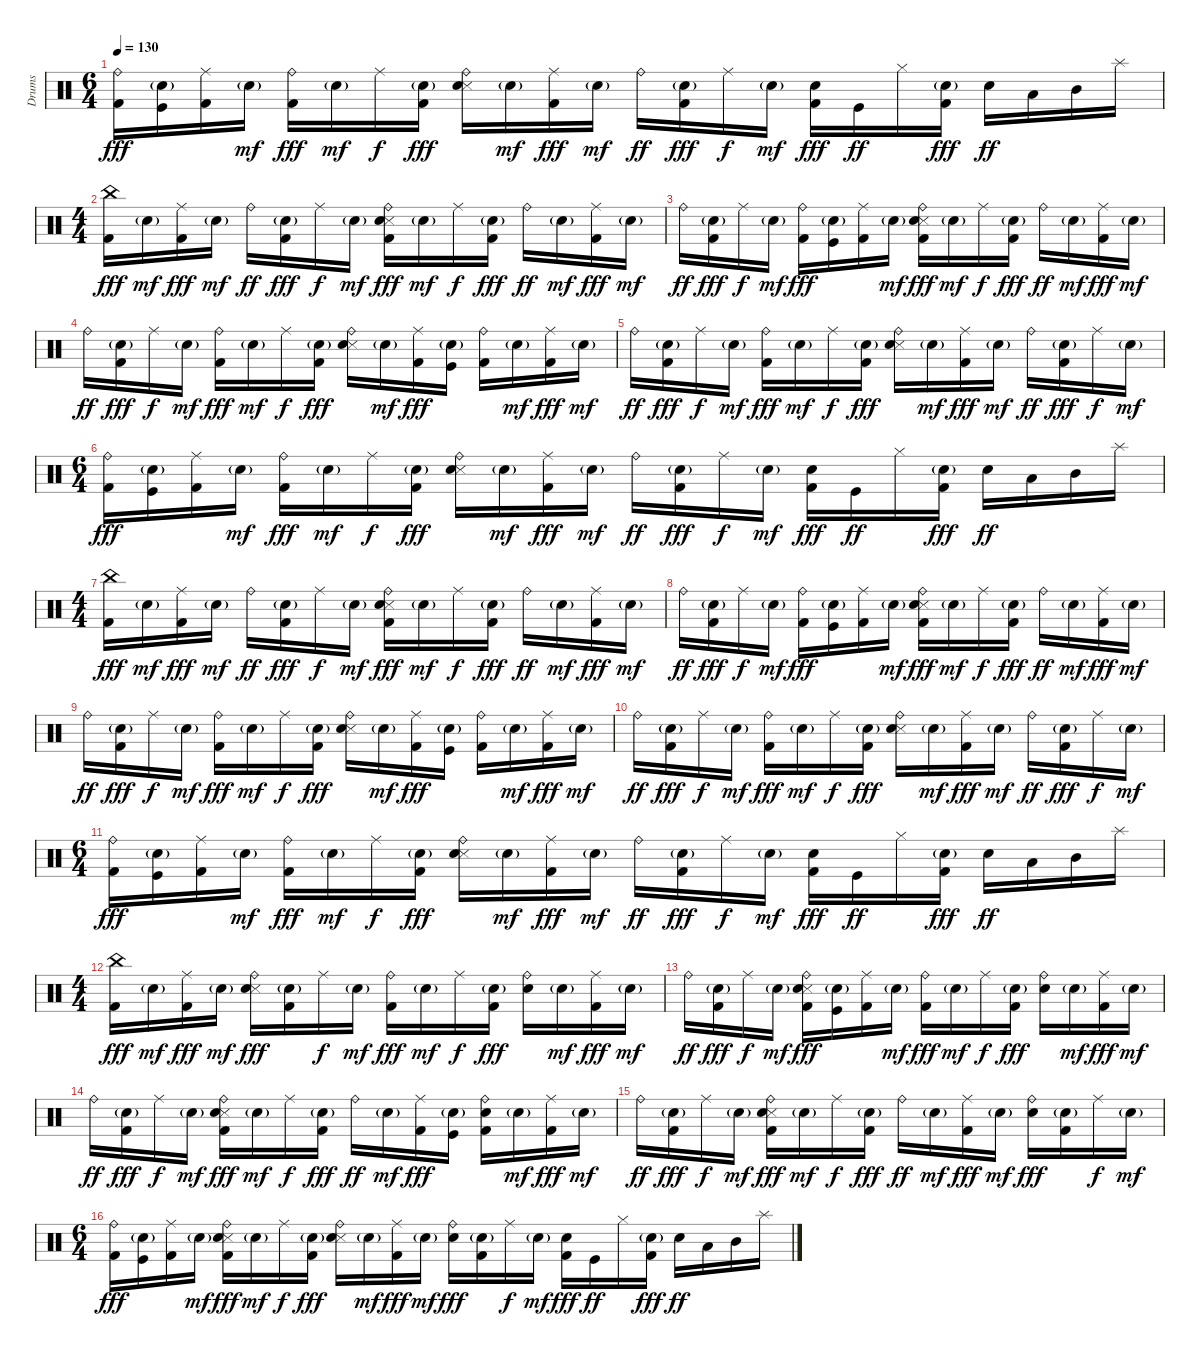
\track ("Drums" "Drums") {instrument percussion}
\staff {score}
\articulation defaults
\ts (6 4)
\tempo 130
\clef neutral
\ks c
("Ride (bell)" "Kick (hit) 2").16{dy fff} ("Snare (hit) 2"{g} "Kick (hit)").16 ("Ride (middle)" "Kick (hit) 2").16 "Snare (hit) 2"{g}.16{dy mf} ("Ride (bell)" "Kick (hit) 2").16{dy fff} "Snare (hit) 2"{g}.16{dy mf} "Ride (middle)".16{dy f} ("Snare (hit) 2"{g} "Kick (hit) 2").16{dy fff} ("Ride (bell)" "Snare (side stick) 3" "Snare (hit) 2").16 "Snare (hit) 2"{g}.16{dy mf} ("Ride (middle)" "Kick (hit) 2").16{dy fff} "Snare (hit) 2"{g}.16{dy mf} "Ride (bell)".16{dy ff} ("Snare (hit) 2"{g} "Kick (hit) 2").16{dy fff} "Ride (middle)".16{dy f} "Snare (hit) 2"{g}.16{dy mf} ("Snare (hit) 2" "Kick (hit) 2").16{dy fff} "Kick (hit)".16{dy ff} "Hi-Hat (closed)".16 ("Snare (hit) 2"{g} "Kick (hit) 2").16{dy fff} "Snare (hit) 2".16{dy ff} "Low Tom (hit)".16 "Mid Tom (hit)".16 "Splash (hit)".16 |
\ts (4 4)
("China (hit)" "Kick (hit) 2").16{dy fff} "Snare (hit) 2"{g}.16{dy mf} ("Ride (middle)" "Kick (hit) 2").16{dy fff} "Snare (hit) 2"{g}.16{dy mf} "Ride (bell)".16{dy ff} ("Snare (hit) 2"{g} "Kick (hit) 2").16{dy fff} "Ride (middle)".16{dy f} "Snare (hit) 2"{g}.16{dy mf} ("Ride (bell)" "Snare (side stick) 3" "Snare (hit) 2" "Kick (hit) 2").16{dy fff} "Snare (hit) 2"{g}.16{dy mf} "Ride (middle)".16{dy f} ("Snare (hit) 2"{g} "Kick (hit) 2").16{dy fff} "Ride (bell)".16{dy ff} "Snare (hit) 2"{g}.16{dy mf} ("Ride (middle)" "Kick (hit) 2").16{dy fff} "Snare (hit) 2"{g}.16{dy mf} |
"Ride (bell)".16{dy ff} ("Snare (hit) 2"{g} "Kick (hit) 2").16{dy fff} "Ride (middle)".16{dy f} "Snare (hit) 2"{g}.16{dy mf} ("Ride (bell)" "Kick (hit) 2").16{dy fff} ("Snare (hit) 2"{g} "Kick (hit)").16 ("Ride (middle)" "Kick (hit) 2").16 "Snare (hit) 2"{g}.16{dy mf} ("Ride (bell)" "Snare (side stick) 3" "Snare (hit) 2" "Kick (hit) 2").16{dy fff} "Snare (hit) 2"{g}.16{dy mf} "Ride (middle)".16{dy f} ("Snare (hit) 2"{g} "Kick (hit) 2").16{dy fff} "Ride (bell)".16{dy ff} "Snare (hit) 2"{g}.16{dy mf} ("Ride (middle)" "Kick (hit) 2").16{dy fff} "Snare (hit) 2"{g}.16{dy mf} |
"Ride (bell)".16{dy ff} ("Snare (hit) 2"{g} "Kick (hit) 2").16{dy fff} "Ride (middle)".16{dy f} "Snare (hit) 2"{g}.16{dy mf} ("Ride (bell)" "Kick (hit) 2").16{dy fff} "Snare (hit) 2"{g}.16{dy mf} "Ride (middle)".16{dy f} ("Snare (hit) 2"{g} "Kick (hit) 2").16{dy fff} ("Ride (bell)" "Snare (side stick) 3" "Snare (hit) 2").16 "Snare (hit) 2"{g}.16{dy mf} ("Ride (middle)" "Kick (hit) 2").16{dy fff} ("Snare (hit) 2"{g} "Kick (hit)").16 ("Ride (bell)" "Kick (hit) 2").16 "Snare (hit) 2"{g}.16{dy mf} ("Ride (middle)" "Kick (hit) 2").16{dy fff} "Snare (hit) 2"{g}.16{dy mf} |
"Ride (bell)".16{dy ff} ("Snare (hit) 2"{g} "Kick (hit) 2").16{dy fff} "Ride (middle)".16{dy f} "Snare (hit) 2"{g}.16{dy mf} ("Ride (bell)" "Kick (hit) 2").16{dy fff} "Snare (hit) 2"{g}.16{dy mf} "Ride (middle)".16{dy f} ("Snare (hit) 2"{g} "Kick (hit) 2").16{dy fff} ("Ride (bell)" "Snare (side stick) 3" "Snare (hit) 2").16 "Snare (hit) 2"{g}.16{dy mf} ("Ride (middle)" "Kick (hit) 2").16{dy fff} "Snare (hit) 2"{g}.16{dy mf} "Ride (bell)".16{dy ff} ("Snare (hit) 2"{g} "Kick (hit) 2").16{dy fff} "Ride (middle)".16{dy f} "Snare (hit) 2"{g}.16{dy mf} |
\ts (6 4)
("Ride (bell)" "Kick (hit) 2").16{dy fff} ("Snare (hit) 2"{g} "Kick (hit)").16 ("Ride (middle)" "Kick (hit) 2").16 "Snare (hit) 2"{g}.16{dy mf} ("Ride (bell)" "Kick (hit) 2").16{dy fff} "Snare (hit) 2"{g}.16{dy mf} "Ride (middle)".16{dy f} ("Snare (hit) 2"{g} "Kick (hit) 2").16{dy fff} ("Ride (bell)" "Snare (side stick) 3" "Snare (hit) 2").16 "Snare (hit) 2"{g}.16{dy mf} ("Ride (middle)" "Kick (hit) 2").16{dy fff} "Snare (hit) 2"{g}.16{dy mf} "Ride (bell)".16{dy ff} ("Snare (hit) 2"{g} "Kick (hit) 2").16{dy fff} "Ride (middle)".16{dy f} "Snare (hit) 2"{g}.16{dy mf} ("Snare (hit) 2" "Kick (hit) 2").16{dy fff} "Kick (hit)".16{dy ff} "Hi-Hat (closed)".16 ("Snare (hit) 2"{g} "Kick (hit) 2").16{dy fff} "Snare (hit) 2".16{dy ff} "Low Tom (hit)".16 "Mid Tom (hit)".16 "Splash (hit)".16 |
\ts (4 4)
("China (hit)" "Kick (hit) 2").16{dy fff} "Snare (hit) 2"{g}.16{dy mf} ("Ride (middle)" "Kick (hit) 2").16{dy fff} "Snare (hit) 2"{g}.16{dy mf} "Ride (bell)".16{dy ff} ("Snare (hit) 2"{g} "Kick (hit) 2").16{dy fff} "Ride (middle)".16{dy f} "Snare (hit) 2"{g}.16{dy mf} ("Ride (bell)" "Snare (side stick) 3" "Snare (hit) 2" "Kick (hit) 2").16{dy fff} "Snare (hit) 2"{g}.16{dy mf} "Ride (middle)".16{dy f} ("Snare (hit) 2"{g} "Kick (hit) 2").16{dy fff} "Ride (bell)".16{dy ff} "Snare (hit) 2"{g}.16{dy mf} ("Ride (middle)" "Kick (hit) 2").16{dy fff} "Snare (hit) 2"{g}.16{dy mf} |
"Ride (bell)".16{dy ff} ("Snare (hit) 2"{g} "Kick (hit) 2").16{dy fff} "Ride (middle)".16{dy f} "Snare (hit) 2"{g}.16{dy mf} ("Ride (bell)" "Kick (hit) 2").16{dy fff} ("Snare (hit) 2"{g} "Kick (hit)").16 ("Ride (middle)" "Kick (hit) 2").16 "Snare (hit) 2"{g}.16{dy mf} ("Ride (bell)" "Snare (side stick) 3" "Snare (hit) 2" "Kick (hit) 2").16{dy fff} "Snare (hit) 2"{g}.16{dy mf} "Ride (middle)".16{dy f} ("Snare (hit) 2"{g} "Kick (hit) 2").16{dy fff} "Ride (bell)".16{dy ff} "Snare (hit) 2"{g}.16{dy mf} ("Ride (middle)" "Kick (hit) 2").16{dy fff} "Snare (hit) 2"{g}.16{dy mf} |
"Ride (bell)".16{dy ff} ("Snare (hit) 2"{g} "Kick (hit) 2").16{dy fff} "Ride (middle)".16{dy f} "Snare (hit) 2"{g}.16{dy mf} ("Ride (bell)" "Kick (hit) 2").16{dy fff} "Snare (hit) 2"{g}.16{dy mf} "Ride (middle)".16{dy f} ("Snare (hit) 2"{g} "Kick (hit) 2").16{dy fff} ("Ride (bell)" "Snare (side stick) 3" "Snare (hit) 2").16 "Snare (hit) 2"{g}.16{dy mf} ("Ride (middle)" "Kick (hit) 2").16{dy fff} ("Snare (hit) 2"{g} "Kick (hit)").16 ("Ride (bell)" "Kick (hit) 2").16 "Snare (hit) 2"{g}.16{dy mf} ("Ride (middle)" "Kick (hit) 2").16{dy fff} "Snare (hit) 2"{g}.16{dy mf} |
"Ride (bell)".16{dy ff} ("Snare (hit) 2"{g} "Kick (hit) 2").16{dy fff} "Ride (middle)".16{dy f} "Snare (hit) 2"{g}.16{dy mf} ("Ride (bell)" "Kick (hit) 2").16{dy fff} "Snare (hit) 2"{g}.16{dy mf} "Ride (middle)".16{dy f} ("Snare (hit) 2"{g} "Kick (hit) 2").16{dy fff} ("Ride (bell)" "Snare (side stick) 3" "Snare (hit) 2").16 "Snare (hit) 2"{g}.16{dy mf} ("Ride (middle)" "Kick (hit) 2").16{dy fff} "Snare (hit) 2"{g}.16{dy mf} "Ride (bell)".16{dy ff} ("Snare (hit) 2"{g} "Kick (hit) 2").16{dy fff} "Ride (middle)".16{dy f} "Snare (hit) 2"{g}.16{dy mf} |
\ts (6 4)
("Ride (bell)" "Kick (hit) 2").16{dy fff} ("Snare (hit) 2"{g} "Kick (hit)").16 ("Ride (middle)" "Kick (hit) 2").16 "Snare (hit) 2"{g}.16{dy mf} ("Ride (bell)" "Kick (hit) 2").16{dy fff} "Snare (hit) 2"{g}.16{dy mf} "Ride (middle)".16{dy f} ("Snare (hit) 2"{g} "Kick (hit) 2").16{dy fff} ("Ride (bell)" "Snare (side stick) 3" "Snare (hit) 2").16 "Snare (hit) 2"{g}.16{dy mf} ("Ride (middle)" "Kick (hit) 2").16{dy fff} "Snare (hit) 2"{g}.16{dy mf} "Ride (bell)".16{dy ff} ("Snare (hit) 2"{g} "Kick (hit) 2").16{dy fff} "Ride (middle)".16{dy f} "Snare (hit) 2"{g}.16{dy mf} ("Snare (hit) 2" "Kick (hit) 2").16{dy fff} "Kick (hit)".16{dy ff} "Hi-Hat (closed)".16 ("Snare (hit) 2"{g} "Kick (hit) 2").16{dy fff} "Snare (hit) 2".16{dy ff} "Low Tom (hit)".16 "Mid Tom (hit)".16 "Splash (hit)".16 |
\ts (4 4)
("China (hit)" "Kick (hit) 2").16{dy fff} "Snare (hit) 2"{g}.16{dy mf} ("Ride (middle)" "Kick (hit) 2").16{dy fff} "Snare (hit) 2"{g}.16{dy mf} ("Ride (bell)" "Snare (side stick) 3" "Snare (hit) 2").16{dy fff} ("Snare (hit) 2"{g} "Kick (hit) 2").16 "Ride (middle)".16{dy f} "Snare (hit) 2"{g}.16{dy mf} ("Ride (bell)" "Kick (hit) 2").16{dy fff} "Snare (hit) 2"{g}.16{dy mf} "Ride (middle)".16{dy f} ("Snare (hit) 2"{g} "Kick (hit) 2").16{dy fff} ("Ride (bell)" "Snare (hit) 2").16 "Snare (hit) 2"{g}.16{dy mf} ("Ride (middle)" "Kick (hit) 2").16{dy fff} "Snare (hit) 2"{g}.16{dy mf} |
"Ride (bell)".16{dy ff} ("Snare (hit) 2"{g} "Kick (hit) 2").16{dy fff} "Ride (middle)".16{dy f} "Snare (hit) 2"{g}.16{dy mf} ("Ride (bell)" "Snare (side stick) 3" "Snare (hit) 2" "Kick (hit) 2").16{dy fff} ("Snare (hit) 2"{g} "Kick (hit)").16 ("Ride (middle)" "Kick (hit) 2").16 "Snare (hit) 2"{g}.16{dy mf} ("Ride (bell)" "Kick (hit) 2").16{dy fff} "Snare (hit) 2"{g}.16{dy mf} "Ride (middle)".16{dy f} ("Snare (hit) 2"{g} "Kick (hit) 2").16{dy fff} ("Ride (bell)" "Snare (hit) 2").16 "Snare (hit) 2"{g}.16{dy mf} ("Ride (middle)" "Kick (hit) 2").16{dy fff} "Snare (hit) 2"{g}.16{dy mf} |
"Ride (bell)".16{dy ff} ("Snare (hit) 2"{g} "Kick (hit) 2").16{dy fff} "Ride (middle)".16{dy f} "Snare (hit) 2"{g}.16{dy mf} ("Ride (bell)" "Snare (side stick) 3" "Snare (hit) 2" "Kick (hit) 2").16{dy fff} "Snare (hit) 2"{g}.16{dy mf} "Ride (middle)".16{dy f} ("Snare (hit) 2"{g} "Kick (hit) 2").16{dy fff} "Ride (bell)".16{dy ff} "Snare (hit) 2"{g}.16{dy mf} ("Ride (middle)" "Kick (hit) 2").16{dy fff} ("Snare (hit) 2"{g} "Kick (hit)").16 ("Ride (bell)" "Snare (hit) 2" "Kick (hit) 2").16 "Snare (hit) 2"{g}.16{dy mf} ("Ride (middle)" "Kick (hit) 2").16{dy fff} "Snare (hit) 2"{g}.16{dy mf} |
"Ride (bell)".16{dy ff} ("Snare (hit) 2"{g} "Kick (hit) 2").16{dy fff} "Ride (middle)".16{dy f} "Snare (hit) 2"{g}.16{dy mf} ("Ride (bell)" "Snare (side stick) 3" "Snare (hit) 2" "Kick (hit) 2").16{dy fff} "Snare (hit) 2"{g}.16{dy mf} "Ride (middle)".16{dy f} ("Snare (hit) 2"{g} "Kick (hit) 2").16{dy fff} "Ride (bell)".16{dy ff} "Snare (hit) 2"{g}.16{dy mf} ("Ride (middle)" "Kick (hit) 2").16{dy fff} "Snare (hit) 2"{g}.16{dy mf} ("Ride (bell)" "Snare (hit) 2").16{dy fff} ("Snare (hit) 2"{g} "Kick (hit) 2").16 "Ride (middle)".16{dy f} "Snare (hit) 2"{g}.16{dy mf} |
\ts (6 4)
("Ride (bell)" "Kick (hit) 2").16{dy fff} ("Snare (hit) 2"{g} "Kick (hit)").16 ("Ride (middle)" "Kick (hit) 2").16 "Snare (hit) 2"{g}.16{dy mf} ("Ride (bell)" "Snare (side stick) 3" "Snare (hit) 2" "Kick (hit) 2").16{dy fff} "Snare (hit) 2"{g}.16{dy mf} "Ride (middle)".16{dy f} ("Snare (hit) 2"{g} "Kick (hit) 2").16{dy fff} ("Ride (bell)" "Snare (side stick) 3" "Snare (hit) 2").16 "Snare (hit) 2"{g}.16{dy mf} ("Ride (middle)" "Kick (hit) 2").16{dy fff} "Snare (hit) 2"{g}.16{dy mf} ("Ride (bell)" "Snare (hit) 2").16{dy fff} ("Snare (hit) 2"{g} "Kick (hit) 2").16 "Ride (middle)".16{dy f} "Snare (hit) 2"{g}.16{dy mf} ("Snare (hit) 2" "Kick (hit) 2").16{dy fff} "Kick (hit)".16{dy ff} "Hi-Hat (closed)".16 ("Snare (hit) 2"{g} "Kick (hit) 2").16{dy fff} "Snare (hit) 2".16{dy ff} "Low Tom (hit)".16 "Mid Tom (hit)".16 "Splash (hit)".16
